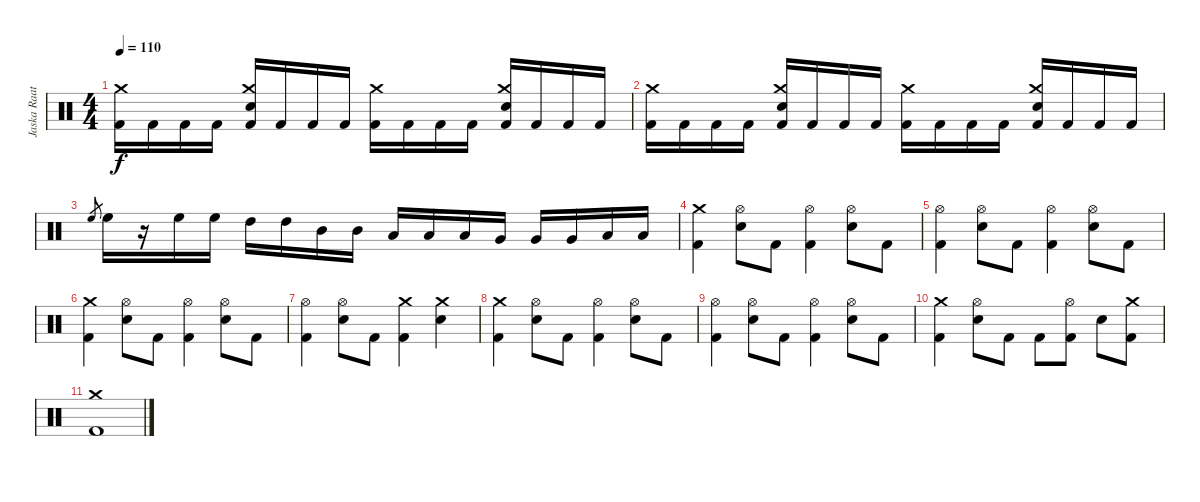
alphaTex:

\track ("Jaska Raatikainen" "Jaska Raat") {instrument percussion}
\staff {score}
\articulation defaults
\ts (4 4)
\tempo 110
\clef neutral
\ks c
("Kick (hit) 2" "Crash medium (hit)").16{dy f} "Kick (hit) 2".16 "Kick (hit) 2".16 "Kick (hit) 2".16 ("Kick (hit) 2" "Crash medium (hit)" "Electric Snare (hit)").16 "Kick (hit) 2".16 "Kick (hit) 2".16 "Kick (hit) 2".16 ("Kick (hit) 2" "Crash medium (hit)").16 "Kick (hit) 2".16 "Kick (hit) 2".16 "Kick (hit) 2".16 ("Kick (hit) 2" "Crash medium (hit)" "Electric Snare (hit)").16 "Kick (hit) 2".16 "Kick (hit) 2".16 "Kick (hit) 2".16 |
("Kick (hit) 2" "Crash medium (hit)").16 "Kick (hit) 2".16 "Kick (hit) 2".16 "Kick (hit) 2".16 ("Kick (hit) 2" "Crash medium (hit)" "Electric Snare (hit)").16 "Kick (hit) 2".16 "Kick (hit) 2".16 "Kick (hit) 2".16 ("Kick (hit) 2" "Crash medium (hit)").16 "Kick (hit) 2".16 "Kick (hit) 2".16 "Kick (hit) 2".16 ("Kick (hit) 2" "Crash medium (hit)" "Electric Snare (hit)").16 "Kick (hit) 2".16 "Kick (hit) 2".16 "Kick (hit) 2".16 |
"High Floor Tom (hit)".8{gr} "High Floor Tom (hit)".16 r.16 "High Floor Tom (hit)".16 "High Floor Tom (hit)".16 "High Tom (hit)".16 "High Tom (hit)".16 "Mid Tom (hit)".16 "Mid Tom (hit)".16 "Low Tom (hit)".16 "Low Tom (hit)".16 "Low Tom (hit)".16 "Very Low Tom (hit)".16 "Very Low Tom (hit)".16 "Very Low Tom (hit)".16 "Low Floor Tom (hit)".16 "Low Floor Tom (hit)".16 |
("Crash medium (hit)" "Kick (hit) 2").4 ("Hi-Hat (open)" "Electric Snare (hit)").8 "Kick (hit) 2".8 ("Hi-Hat (open)" "Kick (hit) 2").4 ("Electric Snare (hit)" "Hi-Hat (open)").8 "Kick (hit) 2".8 |
("Hi-Hat (open)" "Kick (hit) 2").4 ("Hi-Hat (open)" "Electric Snare (hit)").8 "Kick (hit) 2".8 ("Hi-Hat (open)" "Kick (hit) 2").4 ("Electric Snare (hit)" "Hi-Hat (open)").8 "Kick (hit) 2".8 |
("Crash medium (hit)" "Kick (hit) 2").4 ("Hi-Hat (open)" "Electric Snare (hit)").8 "Kick (hit) 2".8 ("Hi-Hat (open)" "Kick (hit) 2").4 ("Electric Snare (hit)" "Hi-Hat (open)").8 "Kick (hit) 2".8 |
("Hi-Hat (open)" "Kick (hit) 2").4 ("Hi-Hat (open)" "Electric Snare (hit)").8 "Kick (hit) 2".8 ("Kick (hit) 2" "Crash medium (hit)").4 ("Electric Snare (hit)" "Crash medium (hit)").4 |
("Crash medium (hit)" "Kick (hit) 2").4 ("Hi-Hat (open)" "Electric Snare (hit)").8 "Kick (hit) 2".8 ("Hi-Hat (open)" "Kick (hit) 2").4 ("Electric Snare (hit)" "Hi-Hat (open)").8 "Kick (hit) 2".8 |
("Hi-Hat (open)" "Kick (hit) 2").4 ("Hi-Hat (open)" "Electric Snare (hit)").8 "Kick (hit) 2".8 ("Hi-Hat (open)" "Kick (hit) 2").4 ("Electric Snare (hit)" "Hi-Hat (open)").8 "Kick (hit) 2".8 |
("Crash medium (hit)" "Kick (hit) 2").4 ("Hi-Hat (open)" "Electric Snare (hit)").8 "Kick (hit) 2".8 "Kick (hit) 2".8 ("Hi-Hat (open)" "Kick (hit) 2").8 "Snare (hit) 2".8 ("Crash medium (hit)" "Kick (hit) 2").8 |
("Kick (hit) 2" "Crash medium (hit)").1
